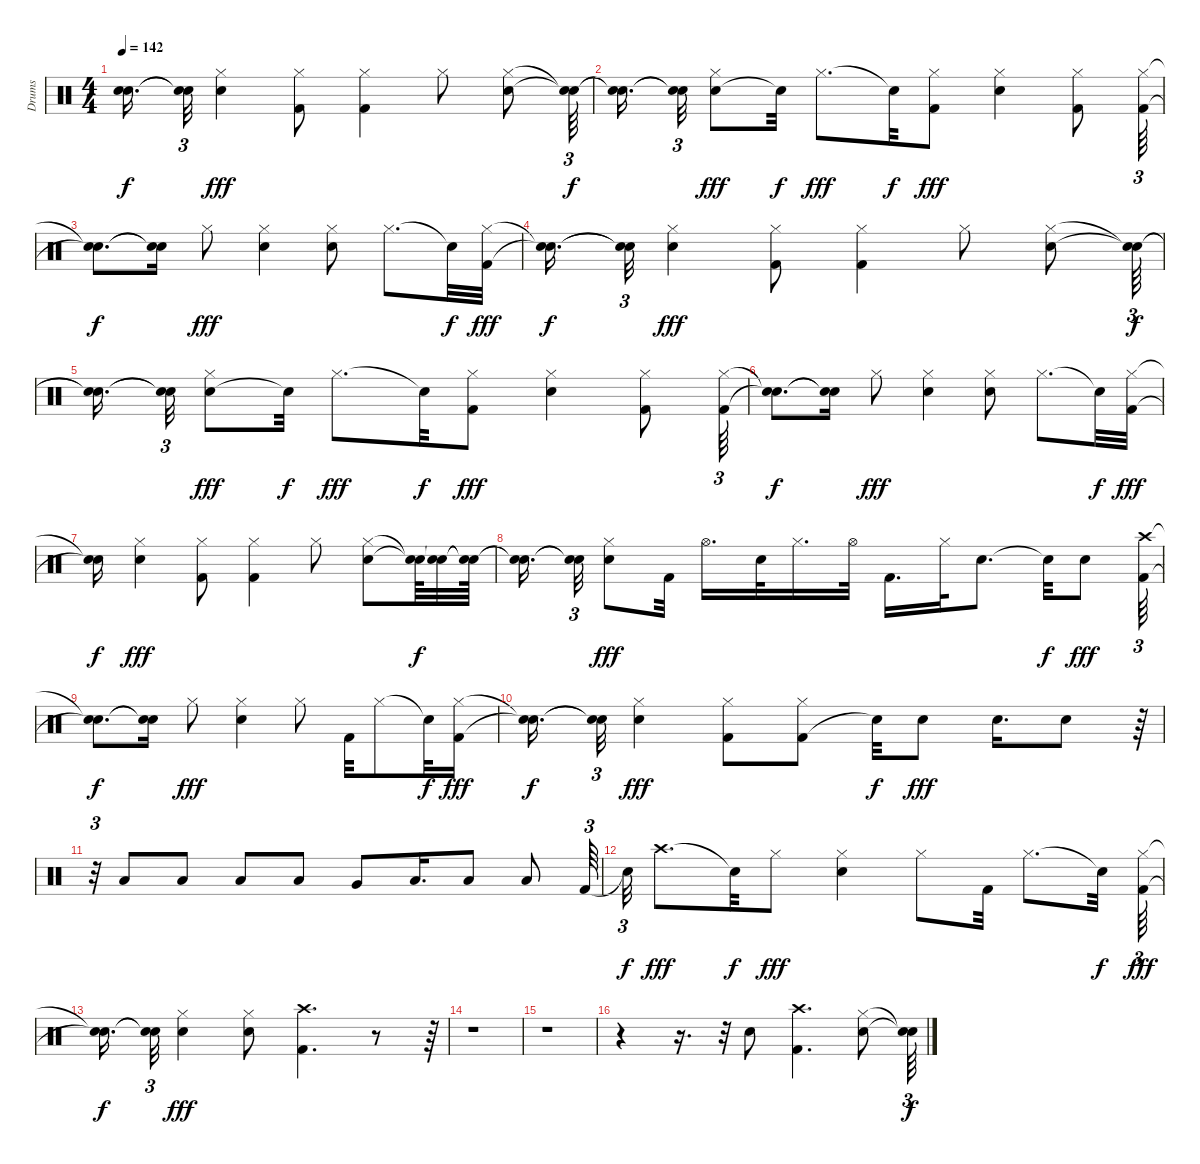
\track ("Drums" "Drums") {instrument percussion}
\staff {score}
\articulation defaults
\ts (4 4)
\tempo 142
\clef neutral
\ks c
("Snare (hit)"{t} "Snare (hit)"{t}).16{d dy f} ("Snare (hit)"{t} "Snare (hit)"{t}).32{tu (3 2)} ("Electric Snare (hit)" "Hi-Hat (closed)").4{dy fff} ("Hi-Hat (closed)" "Kick (hit) 2").8 ("Kick (hit) 2" "Hi-Hat (closed)").4 "Hi-Hat (closed)".8 ("Snare (hit) 2" "Hi-Hat (closed)").8 ("Snare (hit)"{t} "Snare (hit)"{t}).64{tu (3 2) dy f} |
("Snare (hit)"{t} "Snare (hit)"{t}).16{d} ("Snare (hit)"{t} "Snare (hit)"{t}).32{tu (3 2)} ("Snare (hit) 2" "Hi-Hat (closed)").8{dy fff} "Snare (hit)"{t}.32{dy f} "Hi-Hat (closed)".8{d dy fff} "Snare (hit)"{t}.32{dy f} ("Hi-Hat (closed)" "Kick (hit) 2").8{dy fff} ("Electric Snare (hit)" "Hi-Hat (closed)").4 ("Kick (hit) 2" "Hi-Hat (closed)").8 ("Hi-Hat (closed)" "Kick (hit) 2").64{tu (3 2)} |
("Snare (hit)"{t} "Snare (hit)"{t}).8{d dy f} ("Snare (hit)"{t} "Snare (hit)"{t}).16 "Hi-Hat (closed)".8{dy fff} ("Snare (hit) 2" "Hi-Hat (closed)").4 ("Snare (hit) 2" "Hi-Hat (closed)").8 "Hi-Hat (closed)".8{d} "Snare (hit)"{t}.32{dy f} ("Hi-Hat (closed)" "Kick (hit) 2").32{dy fff} |
("Snare (hit)"{t} "Snare (hit)"{t}).16{d dy f} ("Snare (hit)"{t} "Snare (hit)"{t}).32{tu (3 2)} ("Electric Snare (hit)" "Hi-Hat (closed)").4{dy fff} ("Kick (hit) 2" "Hi-Hat (closed)").8 ("Kick (hit) 2" "Hi-Hat (closed)").4 "Hi-Hat (closed)".8 ("Snare (hit) 2" "Hi-Hat (closed)").8 ("Snare (hit)"{t} "Snare (hit)"{t}).64{tu (3 2) dy f} |
("Snare (hit)"{t} "Snare (hit)"{t}).16{d} ("Snare (hit)"{t} "Snare (hit)"{t}).32{tu (3 2)} ("Snare (hit) 2" "Hi-Hat (closed)").8{dy fff} "Snare (hit)"{t}.32{dy f} "Hi-Hat (closed)".8{d dy fff} "Snare (hit)"{t}.32{dy f} ("Hi-Hat (closed)" "Kick (hit) 2").8{dy fff} ("Electric Snare (hit)" "Hi-Hat (closed)").4 ("Hi-Hat (closed)" "Kick (hit) 2").8 ("Hi-Hat (closed)" "Kick (hit) 2").64{tu (3 2)} |
("Snare (hit)"{t} "Snare (hit)"{t}).8{d dy f} ("Snare (hit)"{t} "Snare (hit)"{t}).16 "Hi-Hat (closed)".8{dy fff} ("Snare (hit) 2" "Hi-Hat (closed)").4 ("Snare (hit) 2" "Hi-Hat (closed)").8 "Hi-Hat (closed)".8{d} "Snare (hit)"{t}.32{dy f} ("Hi-Hat (closed)" "Kick (hit) 2").32{dy fff} |
("Snare (hit)"{t} "Snare (hit)"{t}).16{dy f} ("Electric Snare (hit)" "Hi-Hat (closed)").4{dy fff} ("Hi-Hat (closed)" "Kick (hit) 2").8 ("Hi-Hat (closed)" "Kick (hit) 2").4 "Hi-Hat (closed)".8 ("Snare (hit) 2" "Hi-Hat (closed)").8 ("Snare (hit)"{t} "Snare (hit)"{t}).64{dy f} ("Snare (hit)"{t} "Snare (hit)"{t}).32 ("Snare (hit)"{t} "Snare (hit)"{t}).64 |
("Snare (hit)"{t} "Snare (hit)"{t}).16{d} ("Snare (hit)"{t} "Snare (hit)"{t}).32{tu (3 2)} ("Snare (hit) 2" "Hi-Hat (closed)").8{dy fff} "Kick (hit) 2".32 "Hi-Hat (open)".16{d} "Electric Snare (hit)".32 "Hi-Hat (closed)".16{d} "Hi-Hat (open)".32 "Kick (hit) 2".16{d} "Hi-Hat (closed)".32 "Snare (hit) 2".8{d} "Snare (hit)"{t}.32{dy f} "Snare (hit) 2".8{dy fff} ("Kick (hit) 2" "Crash high (hit)").64{tu (3 2)} |
("Snare (hit)"{t} "Snare (hit)"{t}).8{d dy f} ("Snare (hit)"{t} "Snare (hit)"{t}).16 "Hi-Hat (closed)".8{dy fff} ("Snare (hit) 2" "Hi-Hat (closed)").4 "Hi-Hat (closed)".8 "Kick (hit) 2".32 "Hi-Hat (closed)".8 "Snare (hit)"{t}.32{dy f} ("Hi-Hat (closed)" "Kick (hit) 2").16{dy fff} |
("Snare (hit)"{t} "Snare (hit)"{t}).16{d dy f} ("Snare (hit)"{t} "Snare (hit)"{t}).32{tu (3 2)} ("Electric Snare (hit)" "Hi-Hat (closed)").4{dy fff} ("Hi-Hat (closed)" "Kick (hit) 2").8 ("Kick (hit) 2" "Hi-Hat (closed)").8 "Snare (hit)"{t}.32{dy f} "Snare (hit) 2".8{dy fff} "Snare (hit) 2".16{d} "Electric Snare (hit)".8 r.64{tu (3 2)} |
r.32{tu (3 2)} "Low Tom (hit)".8 "Low Tom (hit)".8 "Low Tom (hit)".8 "Low Tom (hit)".8 "Very Low Tom (hit)".8 "Low Floor Tom (hit)".16{d} "Low Floor Tom (hit)".8 "Low Floor Tom (hit)".8 "Kick (hit) 2".64{tu (3 2)} |
"Snare (hit)"{t}.32{tu (3 2) dy f} "Crash high (hit)".8{d dy fff} "Snare (hit)"{t}.32{dy f} "Hi-Hat (closed)".8{dy fff} ("Snare (hit) 2" "Hi-Hat (closed)").4 "Hi-Hat (closed)".8 "Kick (hit) 2".32 "Hi-Hat (closed)".8{d} "Snare (hit)"{t}.32{dy f} ("Hi-Hat (closed)" "Kick (hit) 2").64{tu (3 2) dy fff} |
("Snare (hit)"{t} "Snare (hit)"{t}).16{d dy f} ("Snare (hit)"{t} "Snare (hit)"{t}).32{tu (3 2)} ("Electric Snare (hit)" "Hi-Hat (closed)").4{dy fff} ("Snare (hit) 2" "Hi-Hat (closed)").8 ("Kick (hit) 2" "Crash high (hit)").4{d} r.8 r.64{tu (3 2)} |
r.1 |
r.1 |
r.4 r.16{d} r.32{tu (3 2)} "Electric Snare (hit)".8 ("Kick (hit) 2" "Crash high (hit)").4{d} ("Snare (hit) 2" "Hi-Hat (closed)").8 ("Snare (hit)"{t} "Snare (hit)"{t}).64{tu (3 2) dy f}
